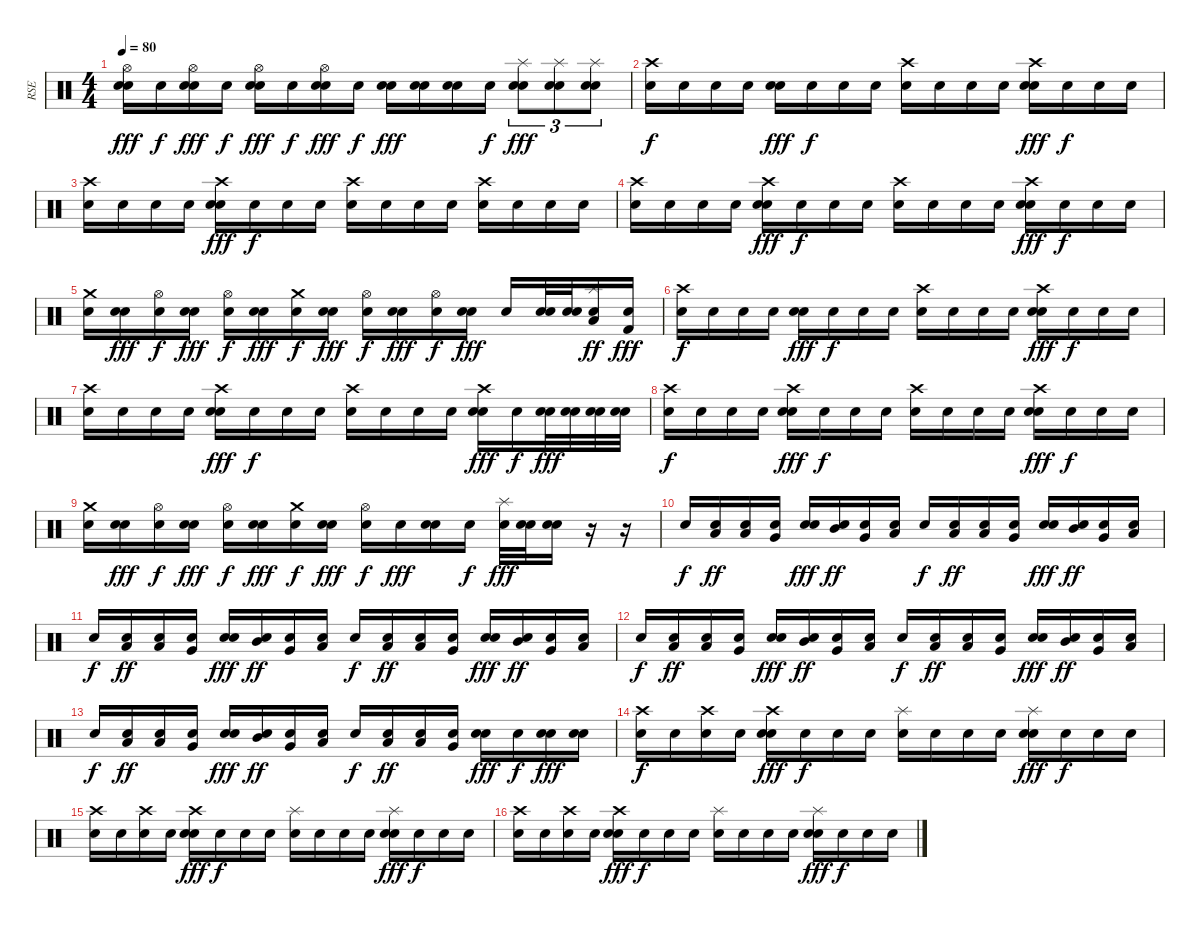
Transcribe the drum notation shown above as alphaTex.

\track ("RSE" "RSE") {instrument percussion}
\staff
\articulation defaults
\ts (4 4)
\tempo 80
\clef neutral
\ks c
("Hi-Hat (open)" "Electric Snare (hit)" "Snare (hit)").16{dy fff} "Snare (hit)".16{dy f} ("Hi-Hat (open)" "Electric Snare (hit)" "Snare (hit)").16{dy fff} "Snare (hit)".16{dy f} ("Hi-Hat (open)" "Electric Snare (hit)" "Snare (hit)").16{dy fff} "Snare (hit)".16{dy f} ("Hi-Hat (open)" "Electric Snare (hit)" "Snare (hit)").16{dy fff} "Snare (hit)".16{dy f} ("Electric Snare (hit)" "Snare (hit)").16{dy fff} ("Electric Snare (hit)" "Snare (hit)").16 ("Electric Snare (hit)" "Snare (hit)").16 "Snare (hit)".16{dy f} ("Splash (hit)" "Electric Snare (hit)" "Snare (hit)").8{tu (3 2) dy fff} ("Splash (hit)" "Electric Snare (hit)" "Snare (hit)").8{tu (3 2)} ("Splash (hit)" "Electric Snare (hit)" "Snare (hit)").8{tu (3 2)} |
("Crash high (hit)" "Snare (hit)").16{dy f} "Snare (hit)".16 "Snare (hit)".16 "Snare (hit)".16 ("Electric Snare (hit)" "Snare (hit)").16{dy fff} "Snare (hit)".16{dy f} "Snare (hit)".16 "Snare (hit)".16 ("Crash high (hit)" "Snare (hit)").16 "Snare (hit)".16 "Snare (hit)".16 "Snare (hit)".16 ("Crash high (hit)" "Electric Snare (hit)" "Snare (hit)").16{dy fff} "Snare (hit)".16{dy f} "Snare (hit)".16 "Snare (hit)".16 |
("Crash high (hit)" "Snare (hit)").16 "Snare (hit)".16 "Snare (hit)".16 "Snare (hit)".16 ("Crash high (hit)" "Electric Snare (hit)" "Snare (hit)").16{dy fff} "Snare (hit)".16{dy f} "Snare (hit)".16 "Snare (hit)".16 ("Crash high (hit)" "Snare (hit)").16 "Snare (hit)".16 "Snare (hit)".16 "Snare (hit)".16 ("Crash high (hit)" "Snare (hit)").16 "Snare (hit)".16 "Snare (hit)".16 "Snare (hit)".16 |
("Crash high (hit)" "Snare (hit)").16 "Snare (hit)".16 "Snare (hit)".16 "Snare (hit)".16 ("Crash high (hit)" "Electric Snare (hit)" "Snare (hit)").16{dy fff} "Snare (hit)".16{dy f} "Snare (hit)".16 "Snare (hit)".16 ("Crash high (hit)" "Snare (hit)").16 "Snare (hit)".16 "Snare (hit)".16 "Snare (hit)".16 ("Crash high (hit)" "Electric Snare (hit)" "Snare (hit)").16{dy fff} "Snare (hit)".16{dy f} "Snare (hit)".16 "Snare (hit)".16 |
("Crash medium (hit)" "Snare (hit)").16 ("Electric Snare (hit)" "Snare (hit)").16{dy fff} ("Hi-Hat (open)" "Snare (hit)").16{dy f} ("Electric Snare (hit)" "Snare (hit)").16{dy fff} ("Hi-Hat (open)" "Snare (hit)").16{dy f} ("Electric Snare (hit)" "Snare (hit)").16{dy fff} ("Crash medium (hit)" "Snare (hit)").16{dy f} ("Electric Snare (hit)" "Snare (hit)").16{dy fff} ("Hi-Hat (open)" "Snare (hit)").16{dy f} ("Electric Snare (hit)" "Snare (hit)").16{dy fff} ("Hi-Hat (open)" "Snare (hit)").16{dy f} ("Electric Snare (hit)" "Snare (hit)").16{dy fff} "Snare (hit)".16 ("Electric Snare (hit)" "Snare (hit)").32 ("Electric Snare (hit)" "Snare (hit)").32 ("Splash (hit)" "Low Tom (hit)" "Snare (hit)").16{dy ff} ("Kick (hit) 2" "Snare (hit)").16{dy fff} |
("Crash high (hit)" "Snare (hit)").16{dy f} "Snare (hit)".16 "Snare (hit)".16 "Snare (hit)".16 ("Electric Snare (hit)" "Snare (hit)").16{dy fff} "Snare (hit)".16{dy f} "Snare (hit)".16 "Snare (hit)".16 ("Crash high (hit)" "Snare (hit)").16 "Snare (hit)".16 "Snare (hit)".16 "Snare (hit)".16 ("Crash high (hit)" "Electric Snare (hit)" "Snare (hit)").16{dy fff} "Snare (hit)".16{dy f} "Snare (hit)".16 "Snare (hit)".16 |
("Crash high (hit)" "Snare (hit)").16 "Snare (hit)".16 "Snare (hit)".16 "Snare (hit)".16 ("Crash high (hit)" "Electric Snare (hit)" "Snare (hit)").16{dy fff} "Snare (hit)".16{dy f} "Snare (hit)".16 "Snare (hit)".16 ("Crash high (hit)" "Snare (hit)").16 "Snare (hit)".16 "Snare (hit)".16 "Snare (hit)".16 ("Crash high (hit)" "Electric Snare (hit)" "Snare (hit)").16{dy fff} "Snare (hit)".16{dy f} ("Electric Snare (hit)" "Snare (hit)").32{dy fff} ("Electric Snare (hit)" "Snare (hit)").32 ("Electric Snare (hit)" "Snare (hit)").32 ("Electric Snare (hit)" "Snare (hit)").32 |
("Crash high (hit)" "Snare (hit)").16{dy f} "Snare (hit)".16 "Snare (hit)".16 "Snare (hit)".16 ("Crash high (hit)" "Electric Snare (hit)" "Snare (hit)").16{dy fff} "Snare (hit)".16{dy f} "Snare (hit)".16 "Snare (hit)".16 ("Crash high (hit)" "Snare (hit)").16 "Snare (hit)".16 "Snare (hit)".16 "Snare (hit)".16 ("Crash high (hit)" "Electric Snare (hit)" "Snare (hit)").16{dy fff} "Snare (hit)".16{dy f} "Snare (hit)".16 "Snare (hit)".16 |
("Crash medium (hit)" "Snare (hit)").16 ("Electric Snare (hit)" "Snare (hit)").16{dy fff} ("Hi-Hat (open)" "Snare (hit)").16{dy f} ("Electric Snare (hit)" "Snare (hit)").16{dy fff} ("Hi-Hat (open)" "Snare (hit)").16{dy f} ("Electric Snare (hit)" "Snare (hit)").16{dy fff} ("Crash medium (hit)" "Snare (hit)").16{dy f} ("Electric Snare (hit)" "Snare (hit)").16{dy fff} ("Hi-Hat (open)" "Snare (hit)").16{dy f} "Electric Snare (hit)".16{dy fff} ("Electric Snare (hit)" "Snare (hit)").16 "Snare (hit)".16{dy f} ("Splash (hit)" "Electric Snare (hit)").32{dy fff} ("Electric Snare (hit)" "Snare (hit)").32 ("Electric Snare (hit)" "Snare (hit)").16 r.16 r.16 |
"Snare (hit)".16{dy f} ("Low Tom (hit)" "Snare (hit)").16{dy ff} ("Low Floor Tom (hit)" "Snare (hit)").16 ("Very Low Tom (hit)" "Snare (hit)").16 ("Electric Snare (hit)" "Snare (hit)").16{dy fff} ("Mid Tom (hit)" "Snare (hit)").16{dy ff} ("Very Low Tom (hit)" "Snare (hit)").16 ("Low Tom (hit)" "Snare (hit)").16 "Snare (hit)".16{dy f} ("Low Tom (hit)" "Snare (hit)").16{dy ff} ("Low Floor Tom (hit)" "Snare (hit)").16 ("Very Low Tom (hit)" "Snare (hit)").16 ("Electric Snare (hit)" "Snare (hit)").16{dy fff} ("Mid Tom (hit)" "Snare (hit)").16{dy ff} ("Very Low Tom (hit)" "Snare (hit)").16 ("Low Tom (hit)" "Snare (hit)").16 |
"Snare (hit)".16{dy f} ("Low Tom (hit)" "Snare (hit)").16{dy ff} ("Low Floor Tom (hit)" "Snare (hit)").16 ("Very Low Tom (hit)" "Snare (hit)").16 ("Electric Snare (hit)" "Snare (hit)").16{dy fff} ("Mid Tom (hit)" "Snare (hit)").16{dy ff} ("Very Low Tom (hit)" "Snare (hit)").16 ("Low Tom (hit)" "Snare (hit)").16 "Snare (hit)".16{dy f} ("Low Tom (hit)" "Snare (hit)").16{dy ff} ("Low Floor Tom (hit)" "Snare (hit)").16 ("Very Low Tom (hit)" "Snare (hit)").16 ("Electric Snare (hit)" "Snare (hit)").16{dy fff} ("Mid Tom (hit)" "Snare (hit)").16{dy ff} ("Very Low Tom (hit)" "Snare (hit)").16 ("Low Tom (hit)" "Snare (hit)").16 |
"Snare (hit)".16{dy f} ("Low Tom (hit)" "Snare (hit)").16{dy ff} ("Low Floor Tom (hit)" "Snare (hit)").16 ("Very Low Tom (hit)" "Snare (hit)").16 ("Electric Snare (hit)" "Snare (hit)").16{dy fff} ("Mid Tom (hit)" "Snare (hit)").16{dy ff} ("Very Low Tom (hit)" "Snare (hit)").16 ("Low Tom (hit)" "Snare (hit)").16 "Snare (hit)".16{dy f} ("Low Tom (hit)" "Snare (hit)").16{dy ff} ("Low Floor Tom (hit)" "Snare (hit)").16 ("Very Low Tom (hit)" "Snare (hit)").16 ("Electric Snare (hit)" "Snare (hit)").16{dy fff} ("Mid Tom (hit)" "Snare (hit)").16{dy ff} ("Very Low Tom (hit)" "Snare (hit)").16 ("Low Tom (hit)" "Snare (hit)").16 |
"Snare (hit)".16{dy f} ("Low Tom (hit)" "Snare (hit)").16{dy ff} ("Low Floor Tom (hit)" "Snare (hit)").16 ("Very Low Tom (hit)" "Snare (hit)").16 ("Electric Snare (hit)" "Snare (hit)").16{dy fff} ("Mid Tom (hit)" "Snare (hit)").16{dy ff} ("Very Low Tom (hit)" "Snare (hit)").16 ("Low Tom (hit)" "Snare (hit)").16 "Snare (hit)".16{dy f} ("Low Tom (hit)" "Snare (hit)").16{dy ff} ("Low Floor Tom (hit)" "Snare (hit)").16 ("Very Low Tom (hit)" "Snare (hit)").16 ("Electric Snare (hit)" "Snare (hit)").16{dy fff} "Snare (hit)".16{dy f} ("Electric Snare (hit)" "Snare (hit)").16{dy fff} ("Electric Snare (hit)" "Snare (hit)").16 |
("Crash high (hit)" "Snare (hit)").16{dy f} "Snare (hit)".16 ("Crash high (hit)" "Snare (hit)").16 "Snare (hit)".16 ("Crash high (hit)" "Electric Snare (hit)" "Snare (hit)").16{dy fff} "Snare (hit)".16{dy f} "Snare (hit)".16 "Snare (hit)".16 ("Splash (hit)" "Snare (hit)").16 "Snare (hit)".16 "Snare (hit)".16 "Snare (hit)".16 ("Splash (hit)" "Electric Snare (hit)" "Snare (hit)").16{dy fff} "Snare (hit)".16{dy f} "Snare (hit)".16 "Snare (hit)".16 |
("Crash high (hit)" "Snare (hit)").16 "Snare (hit)".16 ("Crash high (hit)" "Snare (hit)").16 "Snare (hit)".16 ("Crash high (hit)" "Electric Snare (hit)" "Snare (hit)").16{dy fff} "Snare (hit)".16{dy f} "Snare (hit)".16 "Snare (hit)".16 ("Splash (hit)" "Snare (hit)").16 "Snare (hit)".16 "Snare (hit)".16 "Snare (hit)".16 ("Splash (hit)" "Electric Snare (hit)" "Snare (hit)").16{dy fff} "Snare (hit)".16{dy f} "Snare (hit)".16 "Snare (hit)".16 |
("Crash high (hit)" "Snare (hit)").16 "Snare (hit)".16 ("Crash high (hit)" "Snare (hit)").16 "Snare (hit)".16 ("Crash high (hit)" "Electric Snare (hit)" "Snare (hit)").16{dy fff} "Snare (hit)".16{dy f} "Snare (hit)".16 "Snare (hit)".16 ("Splash (hit)" "Snare (hit)").16 "Snare (hit)".16 "Snare (hit)".16 "Snare (hit)".16 ("Splash (hit)" "Electric Snare (hit)" "Snare (hit)").16{dy fff} "Snare (hit)".16{dy f} "Snare (hit)".16 "Snare (hit)".16
